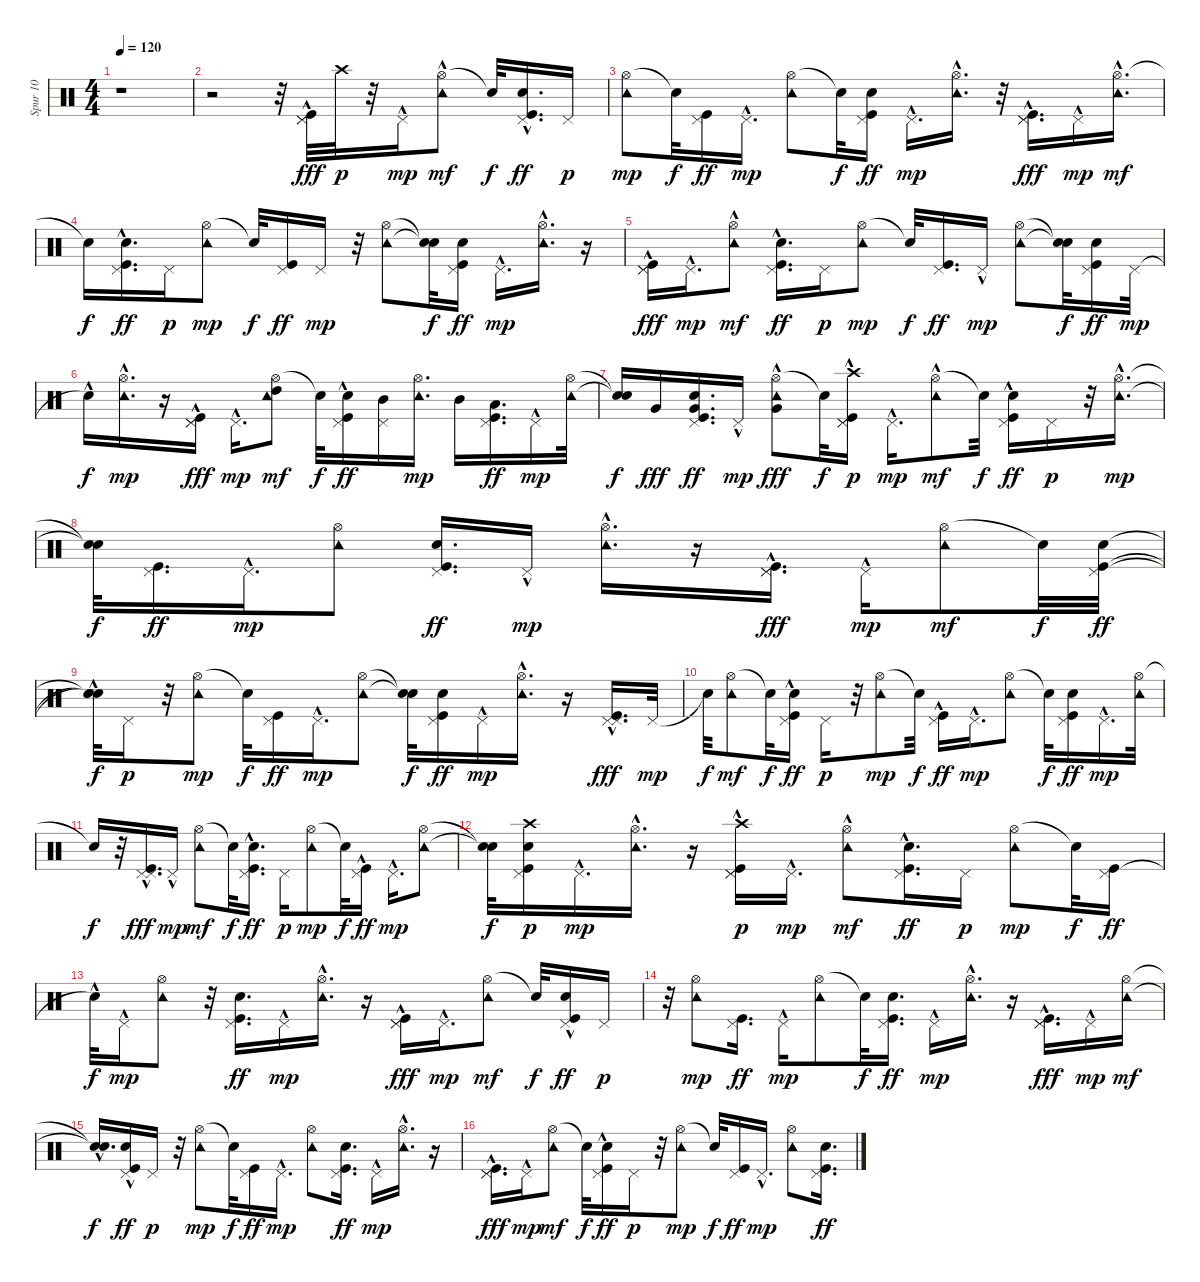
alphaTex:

\track ("Spur 10" "Spur 10") {instrument percussion}
\staff {score}
\articulation defaults
\ts (4 4)
\tempo 120
\clef neutral
\ks c
r.1{dy fff} |
r.2 r.32 ("Pedal Hi-Hat (hit)" "Pedal Hi-Hat (hit)" "Kick (hit)"{hac}).32 "Crash high (hit)".32{dy p} r.32 "Pedal Hi-Hat (hit)"{hac}.16{dy mp} ("Hi-Hat (open)" "Tambourine (hit)"{hac}).8{dy mf} "Snare (hit)"{t}.32{dy f} ("Pedal Hi-Hat (hit)" "Kick (hit)"{hac} "Snare (hit) 2"{hac}).16{d dy ff} "Pedal Hi-Hat (hit)".16{dy p} |
("Hi-Hat (open)" "Tambourine (hit)").8{dy mp} "Snare (hit)"{t}.32{dy f} ("Pedal Hi-Hat (hit)" "Kick (hit)").16{dy ff} "Pedal Hi-Hat (hit)"{hac}.16{d dy mp} ("Hi-Hat (open)" "Tambourine (hit)").8 "Snare (hit)"{t}.32{dy f} ("Pedal Hi-Hat (hit)" "Kick (hit)" "Snare (hit) 2").16{dy ff} "Pedal Hi-Hat (hit)"{hac}.16{d dy mp} ("Hi-Hat (open)" "Tambourine (hit)"{hac}).16{d} r.32 ("Pedal Hi-Hat (hit)" "Pedal Hi-Hat (hit)" "Kick (hit)"{hac}).16{d dy fff} "Pedal Hi-Hat (hit)"{hac}.16{dy mp} ("Hi-Hat (open)"{hac} "Tambourine (hit)"{hac}).16{d dy mf} |
"Snare (hit)"{t}.16{dy f} ("Pedal Hi-Hat (hit)" "Kick (hit)"{hac} "Snare (hit) 2"{hac}).16{d dy ff} "Pedal Hi-Hat (hit)".16{dy p} ("Hi-Hat (open)" "Tambourine (hit)").8{dy mp} "Snare (hit)"{t}.32{dy f} ("Pedal Hi-Hat (hit)" "Kick (hit)").16{dy ff} "Pedal Hi-Hat (hit)".16{dy mp} r.32 ("Hi-Hat (open)" "Tambourine (hit)").8 ("Snare (hit)"{t} "Snare (hit)"{t}).32{dy f} ("Pedal Hi-Hat (hit)" "Kick (hit)" "Snare (hit) 2").16{dy ff} "Pedal Hi-Hat (hit)"{hac}.16{d dy mp} ("Hi-Hat (open)" "Tambourine (hit)"{hac}).16{d} r.16 |
("Pedal Hi-Hat (hit)" "Pedal Hi-Hat (hit)" "Kick (hit)"{hac}).16{dy fff} "Pedal Hi-Hat (hit)"{hac}.16{d dy mp} ("Hi-Hat (open)" "Tambourine (hit)"{hac}).8{dy mf} ("Pedal Hi-Hat (hit)" "Kick (hit)"{hac} "Snare (hit) 2"{hac}).16{d dy ff} "Pedal Hi-Hat (hit)".16{dy p} ("Hi-Hat (open)" "Tambourine (hit)").8{dy mp} "Snare (hit)"{t}.32{dy f} ("Pedal Hi-Hat (hit)" "Kick (hit)").16{d dy ff} "Pedal Hi-Hat (hit)"{hac}.16{dy mp} ("Hi-Hat (open)" "Tambourine (hit)").8 ("Snare (hit)"{t} "Snare (hit)"{t}).32{dy f} ("Pedal Hi-Hat (hit)" "Kick (hit)" "Snare (hit) 2").16{dy ff} "Pedal Hi-Hat (hit)".32{dy mp} |
"Snare (hit)"{hac t}.16{dy f} ("Hi-Hat (open)" "Tambourine (hit)"{hac}).16{d dy mp} r.16 ("Pedal Hi-Hat (hit)" "Pedal Hi-Hat (hit)" "Kick (hit)"{hac}).16{dy fff} "Pedal Hi-Hat (hit)"{hac}.16{d dy mp} ("Hi-Hat (open)" "Tambourine (hit)" "High Tom (hit)").8{dy mf} "Snare (hit)"{t}.32{dy f} ("Pedal Hi-Hat (hit)" "Kick (hit)"{hac} "Snare (hit) 2"{hac}).16{dy ff} ("Pedal Hi-Hat (hit)" "Mid Tom (hit)").16 ("Hi-Hat (open)" "Tambourine (hit)").16{d dy mp} "Mid Tom (hit)".16 ("Pedal Hi-Hat (hit)" "Kick (hit)" "Low Tom (hit)").16{d dy ff} "Pedal Hi-Hat (hit)"{hac}.16{dy mp} ("Hi-Hat (open)" "Tambourine (hit)").32 |
("Snare (hit)"{t} "Snare (hit)"{t}).16{dy f} "Very Low Tom (hit)".16{dy fff} ("Pedal Hi-Hat (hit)" "Kick (hit)" "Snare (hit) 2" "Very Low Tom (hit)").16{d dy ff} "Pedal Hi-Hat (hit)"{hac}.16{dy mp} ("Hi-Hat (open)" "Tambourine (hit)"{hac} "Very Low Tom (hit)").8{dy fff} "Snare (hit)"{t}.32{dy f} ("Pedal Hi-Hat (hit)" "Pedal Hi-Hat (hit)" "Kick (hit)"{hac} "Crash high (hit)").16{dy p} "Pedal Hi-Hat (hit)"{hac}.16{d dy mp} ("Hi-Hat (open)" "Tambourine (hit)"{hac}).8{dy mf} "Snare (hit)"{t}.32{dy f} ("Pedal Hi-Hat (hit)" "Kick (hit)" "Snare (hit) 2"{hac}).16{dy ff} "Pedal Hi-Hat (hit)".16{dy p} r.32 ("Hi-Hat (open)"{hac} "Tambourine (hit)"{hac}).16{d dy mp} |
("Snare (hit)"{t} "Snare (hit)"{t}).32{dy f} ("Pedal Hi-Hat (hit)" "Kick (hit)").16{d dy ff} "Pedal Hi-Hat (hit)"{hac}.16{d dy mp} ("Hi-Hat (open)" "Tambourine (hit)").8 ("Pedal Hi-Hat (hit)" "Kick (hit)" "Snare (hit) 2").16{d dy ff volume 14} "Pedal Hi-Hat (hit)"{hac}.16{dy mp volume 14} ("Hi-Hat (open)" "Tambourine (hit)"{hac}).16{d volume 15} r.16 ("Pedal Hi-Hat (hit)" "Pedal Hi-Hat (hit)" "Kick (hit)"{hac}).16{d dy fff volume 16} "Pedal Hi-Hat (hit)"{hac}.16{dy mp} ("Hi-Hat (open)" "Tambourine (hit)").8{dy mf} "Snare (hit)"{t}.32{dy f} ("Pedal Hi-Hat (hit)" "Kick (hit)" "Snare (hit) 2").32{dy ff} |
("Snare (hit)"{t} "Snare (hit)"{hac t} "Snare (hit)"{hac t}).32{dy f} "Pedal Hi-Hat (hit)".16{dy p} r.32 ("Hi-Hat (open)" "Tambourine (hit)").8{dy mp} "Snare (hit)"{t}.32{dy f} ("Pedal Hi-Hat (hit)" "Kick (hit)").16{dy ff} "Pedal Hi-Hat (hit)"{hac}.16{d dy mp} ("Hi-Hat (open)" "Tambourine (hit)").8 ("Snare (hit)"{t} "Snare (hit)"{t}).32{dy f} ("Pedal Hi-Hat (hit)" "Kick (hit)" "Snare (hit) 2").16{dy ff} "Pedal Hi-Hat (hit)"{hac}.16{dy mp} ("Hi-Hat (open)" "Tambourine (hit)"{hac}).16{d} r.16 ("Pedal Hi-Hat (hit)" "Pedal Hi-Hat (hit)" "Kick (hit)"{hac}).16{d dy fff} "Pedal Hi-Hat (hit)".32{dy mp} |
"Snare (hit)"{t}.32{dy f} ("Hi-Hat (open)" "Tambourine (hit)").8{dy mf} "Snare (hit)"{t}.32{dy f} ("Pedal Hi-Hat (hit)" "Kick (hit)" "Snare (hit) 2"{hac}).16{dy ff} "Pedal Hi-Hat (hit)".16{dy p} r.32 ("Hi-Hat (open)" "Tambourine (hit)").8{dy mp} "Snare (hit)"{t}.32{dy f} ("Pedal Hi-Hat (hit)" "Kick (hit)"{hac}).16{dy ff} "Pedal Hi-Hat (hit)"{hac}.16{d dy mp} ("Hi-Hat (open)" "Tambourine (hit)").8 "Snare (hit)"{t}.32{dy f} ("Pedal Hi-Hat (hit)" "Kick (hit)" "Snare (hit) 2").16{dy ff} "Pedal Hi-Hat (hit)"{hac}.16{d dy mp} ("Hi-Hat (open)" "Tambourine (hit)").32 |
"Snare (hit)"{t}.16{dy f} r.32 ("Pedal Hi-Hat (hit)" "Pedal Hi-Hat (hit)" "Kick (hit)"{hac}).16{d dy fff} "Pedal Hi-Hat (hit)"{hac}.16{dy mp} ("Hi-Hat (open)" "Tambourine (hit)").8{dy mf} "Snare (hit)"{t}.32{dy f} ("Pedal Hi-Hat (hit)" "Kick (hit)"{hac} "Snare (hit) 2"{hac}).16{d dy ff} "Pedal Hi-Hat (hit)".16{dy p} ("Hi-Hat (open)" "Tambourine (hit)").8{dy mp} "Snare (hit)"{t}.32{dy f} ("Pedal Hi-Hat (hit)" "Kick (hit)"{hac}).16{dy ff} "Pedal Hi-Hat (hit)"{hac}.16{d dy mp} ("Hi-Hat (open)" "Tambourine (hit)").8 |
("Snare (hit)"{t} "Snare (hit)"{t}).32{dy f} ("Pedal Hi-Hat (hit)" "Kick (hit)" "Snare (hit) 2" "Crash high (hit)").16{dy p} "Pedal Hi-Hat (hit)"{hac}.16{d dy mp} ("Hi-Hat (open)" "Tambourine (hit)"{hac}).16{d} r.16 ("Pedal Hi-Hat (hit)" "Pedal Hi-Hat (hit)" "Kick (hit)"{hac} "Crash high (hit)").16{dy p} "Pedal Hi-Hat (hit)"{hac}.16{d dy mp} ("Hi-Hat (open)" "Tambourine (hit)"{hac}).8{dy mf} ("Pedal Hi-Hat (hit)" "Kick (hit)"{hac} "Snare (hit) 2"{hac}).16{d dy ff} "Pedal Hi-Hat (hit)".16{dy p} ("Hi-Hat (open)" "Tambourine (hit)").8{dy mp} "Snare (hit)"{t}.32{dy f} ("Pedal Hi-Hat (hit)" "Kick (hit)").16{dy ff} |
"Snare (hit)"{hac t}.32{dy f} "Pedal Hi-Hat (hit)"{hac}.16{dy mp} ("Hi-Hat (open)" "Tambourine (hit)").8 r.32 ("Pedal Hi-Hat (hit)" "Kick (hit)" "Snare (hit) 2").16{d dy ff} "Pedal Hi-Hat (hit)"{hac}.16{dy mp} ("Hi-Hat (open)" "Tambourine (hit)"{hac}).16{d} r.16 ("Pedal Hi-Hat (hit)" "Pedal Hi-Hat (hit)" "Kick (hit)"{hac}).16{dy fff} "Pedal Hi-Hat (hit)"{hac}.16{d dy mp} ("Hi-Hat (open)" "Tambourine (hit)").8{dy mf} "Snare (hit)"{t}.32{dy f} ("Pedal Hi-Hat (hit)" "Kick (hit)" "Snare (hit) 2"{hac}).16{dy ff volume 16} "Pedal Hi-Hat (hit)".16{dy p volume 15} |
r.32 ("Hi-Hat (open)" "Tambourine (hit)").8{dy mp volume 15} ("Pedal Hi-Hat (hit)" "Kick (hit)").16{d dy ff volume 14} "Pedal Hi-Hat (hit)"{hac}.16{dy mp} ("Hi-Hat (open)" "Tambourine (hit)").8 "Snare (hit)"{t}.32{dy f} ("Pedal Hi-Hat (hit)" "Kick (hit)" "Snare (hit) 2").16{d dy ff} "Pedal Hi-Hat (hit)"{hac}.16{dy mp} ("Hi-Hat (open)" "Tambourine (hit)"{hac}).16{d} r.16 ("Pedal Hi-Hat (hit)" "Pedal Hi-Hat (hit)" "Kick (hit)"{hac}).16{d dy fff} "Pedal Hi-Hat (hit)"{hac}.16{dy mp} ("Hi-Hat (open)" "Tambourine (hit)").16{dy mf} |
("Snare (hit)"{hac t} "Snare (hit)"{t}).16{d dy f} ("Pedal Hi-Hat (hit)" "Kick (hit)" "Snare (hit) 2"{hac}).16{dy ff} "Pedal Hi-Hat (hit)".16{dy p} r.32 ("Hi-Hat (open)" "Tambourine (hit)").8{dy mp} "Snare (hit)"{t}.32{dy f} ("Pedal Hi-Hat (hit)" "Kick (hit)").16{dy ff} "Pedal Hi-Hat (hit)"{hac}.16{d dy mp} ("Hi-Hat (open)" "Tambourine (hit)").8 ("Pedal Hi-Hat (hit)" "Kick (hit)" "Snare (hit) 2").16{d dy ff} "Pedal Hi-Hat (hit)"{hac}.16{dy mp} ("Hi-Hat (open)" "Tambourine (hit)"{hac}).16{d} r.16 |
("Pedal Hi-Hat (hit)" "Pedal Hi-Hat (hit)" "Kick (hit)"{hac}).16{d dy fff} "Pedal Hi-Hat (hit)"{hac}.16{dy mp} ("Hi-Hat (open)" "Tambourine (hit)").8{dy mf} "Snare (hit)"{t}.32{dy f} ("Pedal Hi-Hat (hit)" "Kick (hit)"{hac} "Snare (hit) 2"{hac}).16{dy ff} "Pedal Hi-Hat (hit)".16{dy p} r.32 ("Hi-Hat (open)" "Tambourine (hit)").8{dy mp} "Snare (hit)"{t}.32{dy f} ("Pedal Hi-Hat (hit)" "Kick (hit)").16{dy ff} "Pedal Hi-Hat (hit)"{hac}.16{d dy mp} ("Hi-Hat (open)" "Tambourine (hit)").8 ("Pedal Hi-Hat (hit)" "Kick (hit)" "Snare (hit) 2").16{d dy ff}
